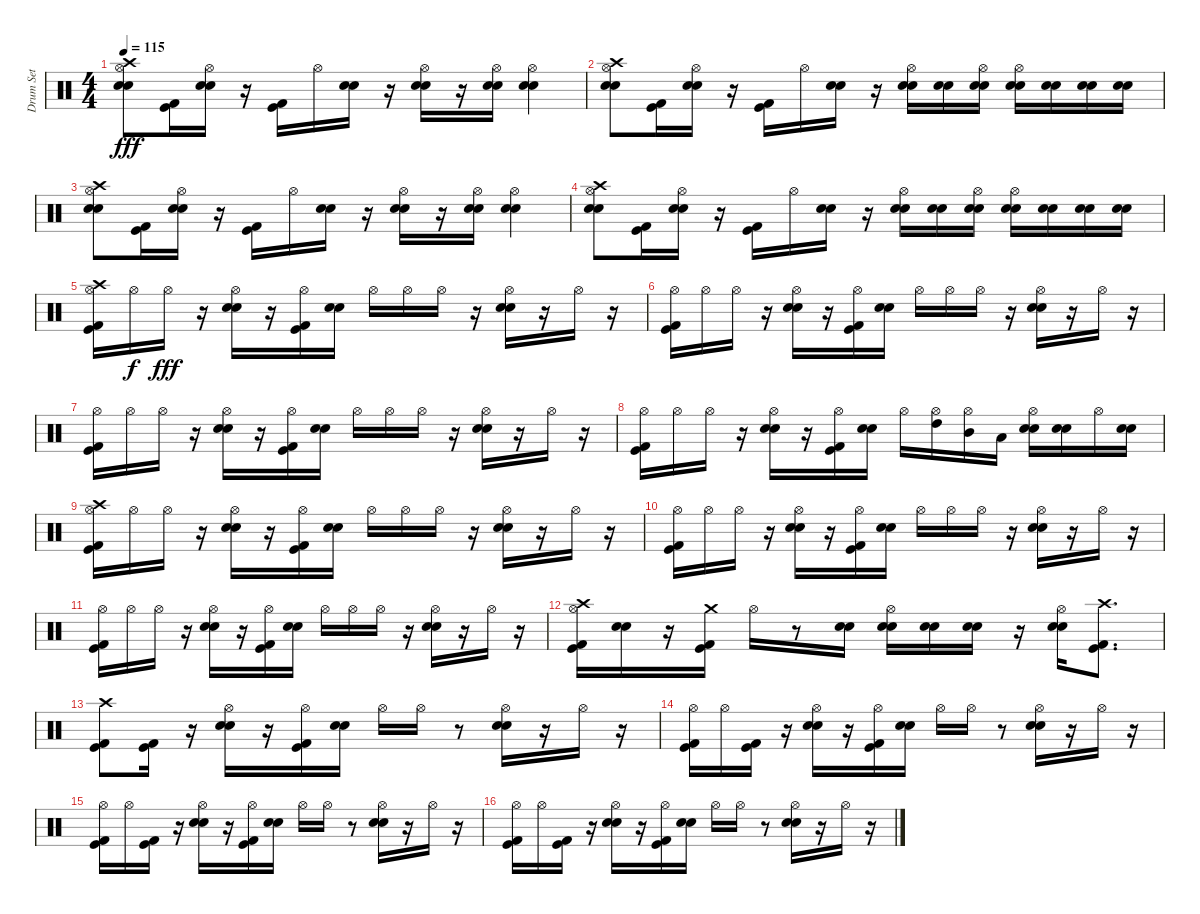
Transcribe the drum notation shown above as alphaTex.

\track ("Drum Set" "Drum Set") {instrument percussion}
\staff {score}
\articulation defaults
\ts (4 4)
\tempo 115
\clef neutral
\ks c
("Crash high (hit)" "Hi-Hat (open)" "Snare (hit) 2" "Electric Snare (hit)").8{dy fff} ("Kick (hit) 2" "Kick (hit)").16 ("Hi-Hat (open)" "Electric Snare (hit)" "Snare (hit) 2").16 r.16 ("Kick (hit)" "Kick (hit) 2").16 "Hi-Hat (open)".16 ("Electric Snare (hit)" "Snare (hit) 2").16 r.16 ("Electric Snare (hit)" "Snare (hit) 2" "Hi-Hat (open)").16 r.16 ("Hi-Hat (open)" "Electric Snare (hit)" "Snare (hit) 2").16 ("Hi-Hat (open)" "Electric Snare (hit)" "Snare (hit) 2").4 |
("Crash high (hit)" "Hi-Hat (open)" "Snare (hit) 2" "Electric Snare (hit)").8 ("Kick (hit) 2" "Kick (hit)").16 ("Hi-Hat (open)" "Electric Snare (hit)" "Snare (hit) 2").16 r.16 ("Kick (hit)" "Kick (hit) 2").16 "Hi-Hat (open)".16 ("Electric Snare (hit)" "Snare (hit) 2").16 r.16 ("Snare (hit) 2" "Electric Snare (hit)" "Hi-Hat (open)").16 ("Electric Snare (hit)" "Snare (hit) 2").16 ("Electric Snare (hit)" "Snare (hit) 2" "Hi-Hat (open)").16 ("Hi-Hat (open)" "Snare (hit) 2" "Electric Snare (hit)").16 ("Electric Snare (hit)" "Snare (hit) 2").16 ("Snare (hit) 2" "Electric Snare (hit)").16 ("Electric Snare (hit)" "Snare (hit) 2").16 |
("Hi-Hat (open)" "Crash high (hit)" "Snare (hit) 2" "Electric Snare (hit)").8 ("Kick (hit) 2" "Kick (hit)").16 ("Hi-Hat (open)" "Electric Snare (hit)" "Snare (hit) 2").16 r.16 ("Kick (hit)" "Kick (hit) 2").16 "Hi-Hat (open)".16 ("Electric Snare (hit)" "Snare (hit) 2").16 r.16 ("Hi-Hat (open)" "Electric Snare (hit)" "Snare (hit) 2").16 r.16 ("Hi-Hat (open)" "Electric Snare (hit)" "Snare (hit) 2").16 ("Hi-Hat (open)" "Electric Snare (hit)" "Snare (hit) 2").4 |
("Hi-Hat (open)" "Crash high (hit)" "Snare (hit) 2" "Electric Snare (hit)").8 ("Kick (hit) 2" "Kick (hit)").16 ("Hi-Hat (open)" "Electric Snare (hit)" "Snare (hit) 2").16 r.16 ("Kick (hit)" "Kick (hit) 2").16 "Hi-Hat (open)".16 ("Electric Snare (hit)" "Snare (hit) 2").16 r.16 ("Hi-Hat (open)" "Snare (hit) 2" "Electric Snare (hit)").16 ("Electric Snare (hit)" "Snare (hit) 2").16 ("Hi-Hat (open)" "Snare (hit) 2" "Electric Snare (hit)").16 ("Hi-Hat (open)" "Snare (hit) 2" "Electric Snare (hit)").16 ("Electric Snare (hit)" "Snare (hit) 2").16 ("Snare (hit) 2" "Electric Snare (hit)").16 ("Electric Snare (hit)" "Snare (hit) 2").16 |
("Crash high (hit)" "Hi-Hat (open)" "Kick (hit) 2" "Kick (hit)").16 "Hi-Hat (open)".16{dy f} "Hi-Hat (open)".16{dy fff} r.16 ("Hi-Hat (open)" "Electric Snare (hit)" "Snare (hit) 2").16 r.16 ("Hi-Hat (open)" "Kick (hit) 2" "Kick (hit)").16 ("Electric Snare (hit)" "Snare (hit) 2").16 "Hi-Hat (open)".16 "Hi-Hat (open)".16 "Hi-Hat (open)".16 r.16 ("Hi-Hat (open)" "Electric Snare (hit)" "Snare (hit) 2").16 r.16 "Hi-Hat (open)".16 r.16 |
("Hi-Hat (open)" "Kick (hit) 2" "Kick (hit)").16 "Hi-Hat (open)".16 "Hi-Hat (open)".16 r.16 ("Hi-Hat (open)" "Electric Snare (hit)" "Snare (hit) 2").16 r.16 ("Hi-Hat (open)" "Kick (hit) 2" "Kick (hit)").16 ("Electric Snare (hit)" "Snare (hit) 2").16 "Hi-Hat (open)".16 "Hi-Hat (open)".16 "Hi-Hat (open)".16 r.16 ("Hi-Hat (open)" "Electric Snare (hit)" "Snare (hit) 2").16 r.16 "Hi-Hat (open)".16 r.16 |
("Hi-Hat (open)" "Kick (hit) 2" "Kick (hit)").16 "Hi-Hat (open)".16 "Hi-Hat (open)".16 r.16 ("Hi-Hat (open)" "Electric Snare (hit)" "Snare (hit) 2").16 r.16 ("Hi-Hat (open)" "Kick (hit) 2" "Kick (hit)").16 ("Electric Snare (hit)" "Snare (hit) 2").16 "Hi-Hat (open)".16 "Hi-Hat (open)".16 "Hi-Hat (open)".16 r.16 ("Hi-Hat (open)" "Electric Snare (hit)" "Snare (hit) 2").16 r.16 "Hi-Hat (open)".16 r.16 |
("Hi-Hat (open)" "Kick (hit) 2" "Kick (hit)").16 "Hi-Hat (open)".16 "Hi-Hat (open)".16 r.16 ("Hi-Hat (open)" "Electric Snare (hit)" "Snare (hit) 2").16 r.16 ("Hi-Hat (open)" "Kick (hit) 2" "Kick (hit)").16 ("Electric Snare (hit)" "Snare (hit) 2").16 "Hi-Hat (open)".16 ("High Tom (hit)" "Hi-Hat (open)").16 ("Hi-Hat (open)" "Mid Tom (hit)").16 "Low Tom (hit)".16 ("Hi-Hat (open)" "Electric Snare (hit)" "Snare (hit) 2").16 ("Snare (hit) 2" "Electric Snare (hit)").16 "Hi-Hat (open)".16 ("Electric Snare (hit)" "Snare (hit) 2").16 |
("Crash high (hit)" "Hi-Hat (open)" "Kick (hit) 2" "Kick (hit)").16 "Hi-Hat (open)".16 "Hi-Hat (open)".16 r.16 ("Hi-Hat (open)" "Electric Snare (hit)" "Snare (hit) 2").16 r.16 ("Hi-Hat (open)" "Kick (hit) 2" "Kick (hit)").16 ("Electric Snare (hit)" "Snare (hit) 2").16 "Hi-Hat (open)".16 "Hi-Hat (open)".16 "Hi-Hat (open)".16 r.16 ("Hi-Hat (open)" "Electric Snare (hit)" "Snare (hit) 2").16 r.16 "Hi-Hat (open)".16 r.16 |
("Kick (hit) 2" "Kick (hit)" "Hi-Hat (open)").16 "Hi-Hat (open)".16 "Hi-Hat (open)".16 r.16 ("Hi-Hat (open)" "Snare (hit) 2" "Electric Snare (hit)").16 r.16 ("Kick (hit) 2" "Hi-Hat (open)" "Kick (hit)").16 ("Snare (hit) 2" "Electric Snare (hit)").16 "Hi-Hat (open)".16 "Hi-Hat (open)".16 "Hi-Hat (open)".16 r.16 ("Electric Snare (hit)" "Snare (hit) 2" "Hi-Hat (open)").16 r.16 "Hi-Hat (open)".16 r.16 |
("Hi-Hat (open)" "Kick (hit) 2" "Kick (hit)").16 "Hi-Hat (open)".16 "Hi-Hat (open)".16 r.16 ("Hi-Hat (open)" "Electric Snare (hit)" "Snare (hit) 2").16 r.16 ("Hi-Hat (open)" "Kick (hit) 2" "Kick (hit)").16 ("Electric Snare (hit)" "Snare (hit) 2").16 "Hi-Hat (open)".16 "Hi-Hat (open)".16 "Hi-Hat (open)".16 r.16 ("Hi-Hat (open)" "Electric Snare (hit)" "Snare (hit) 2").16 r.16 "Hi-Hat (open)".16 r.16 |
("Hi-Hat (open)" "Crash high (hit)" "Kick (hit) 2" "Kick (hit)").16 ("Electric Snare (hit)" "Snare (hit) 2").16 r.16 ("Crash medium (hit)" "Kick (hit) 2" "Kick (hit)").16 "Hi-Hat (open)".16 r.8 ("Electric Snare (hit)" "Snare (hit) 2").16 ("Hi-Hat (open)" "Electric Snare (hit)" "Snare (hit) 2").16 ("Snare (hit) 2" "Electric Snare (hit)").16 ("Snare (hit) 2" "Electric Snare (hit)").16 r.16 ("Hi-Hat (open)" "Snare (hit) 2" "Electric Snare (hit)").16 ("Crash high (hit)" "Kick (hit)" "Kick (hit) 2").8{d} |
("Crash high (hit)" "Kick (hit)" "Kick (hit) 2").8 ("Kick (hit)" "Kick (hit) 2").16 r.16 ("Hi-Hat (open)" "Electric Snare (hit)" "Snare (hit) 2").16 r.16 ("Hi-Hat (open)" "Kick (hit) 2" "Kick (hit)").16 ("Electric Snare (hit)" "Snare (hit) 2").16 "Hi-Hat (open)".16 "Hi-Hat (open)".16 r.8 ("Hi-Hat (open)" "Electric Snare (hit)" "Snare (hit) 2").16 r.16 "Hi-Hat (open)".16 r.16 |
("Hi-Hat (open)" "Kick (hit)" "Kick (hit) 2").16 "Hi-Hat (open)".16 ("Kick (hit)" "Kick (hit) 2").16 r.16 ("Hi-Hat (open)" "Electric Snare (hit)" "Snare (hit) 2").16 r.16 ("Hi-Hat (open)" "Kick (hit) 2" "Kick (hit)").16 ("Electric Snare (hit)" "Snare (hit) 2").16 "Hi-Hat (open)".16 "Hi-Hat (open)".16 r.8 ("Hi-Hat (open)" "Electric Snare (hit)" "Snare (hit) 2").16 r.16 "Hi-Hat (open)".16 r.16 |
("Hi-Hat (open)" "Kick (hit)" "Kick (hit) 2").16 "Hi-Hat (open)".16 ("Kick (hit)" "Kick (hit) 2").16 r.16 ("Hi-Hat (open)" "Electric Snare (hit)" "Snare (hit) 2").16 r.16 ("Hi-Hat (open)" "Kick (hit) 2" "Kick (hit)").16 ("Electric Snare (hit)" "Snare (hit) 2").16 "Hi-Hat (open)".16 "Hi-Hat (open)".16 r.8 ("Hi-Hat (open)" "Electric Snare (hit)" "Snare (hit) 2").16 r.16 "Hi-Hat (open)".16 r.16 |
("Hi-Hat (open)" "Kick (hit)" "Kick (hit) 2").16 "Hi-Hat (open)".16 ("Kick (hit)" "Kick (hit) 2").16 r.16 ("Hi-Hat (open)" "Electric Snare (hit)" "Snare (hit) 2").16 r.16 ("Hi-Hat (open)" "Kick (hit) 2" "Kick (hit)").16 ("Electric Snare (hit)" "Snare (hit) 2").16 "Hi-Hat (open)".16 "Hi-Hat (open)".16 r.8 ("Hi-Hat (open)" "Electric Snare (hit)" "Snare (hit) 2").16 r.16 "Hi-Hat (open)".16 r.16
